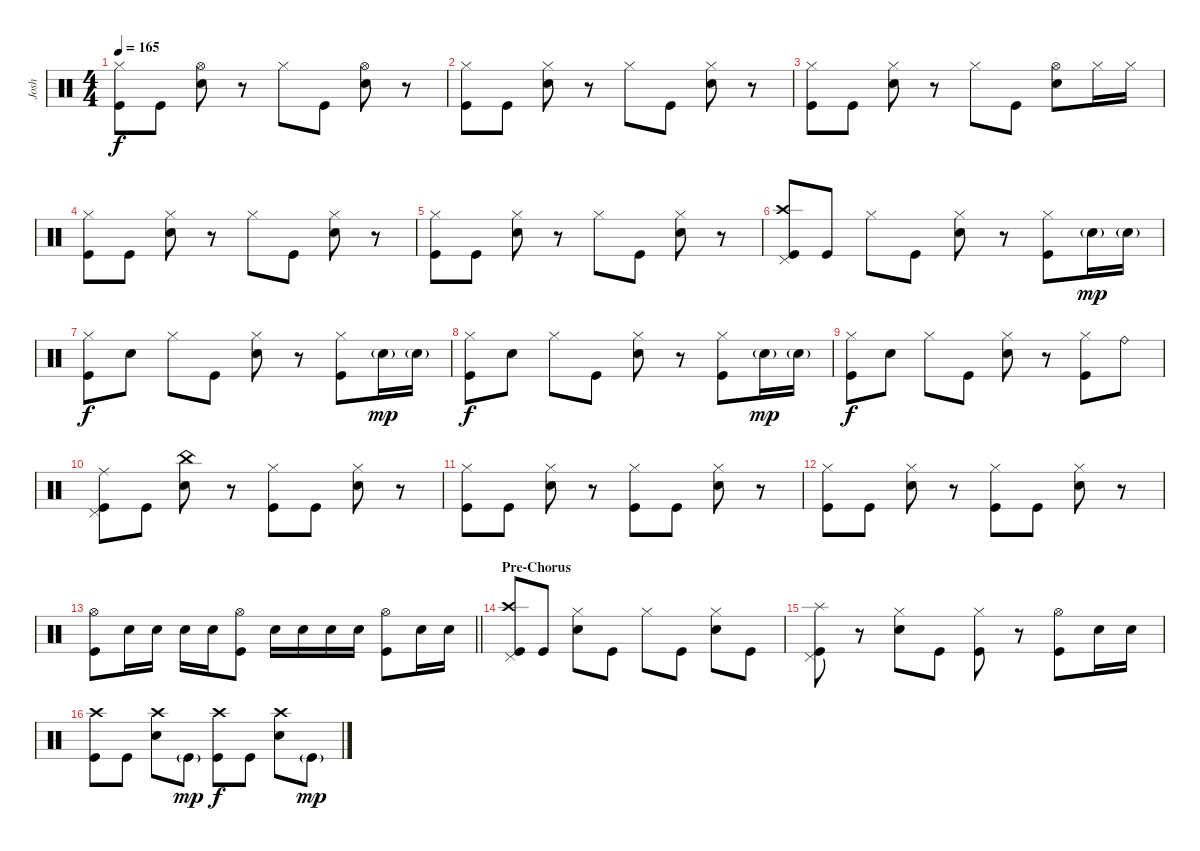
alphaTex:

\track ("Josh" "Josh") {instrument percussion}
\staff {score}
\articulation defaults
\ts (4 4)
\tempo 165
\clef neutral
\ks c
("Hi-Hat (closed)" "Kick (hit)").8{dy f} "Kick (hit)".8 ("Hi-Hat (open)" "Snare (hit) 2").8 r.8 "Hi-Hat (closed)".8 "Kick (hit)".8 ("Hi-Hat (open)" "Snare (hit) 2").8 r.8 |
("Hi-Hat (closed)" "Kick (hit)").8 "Kick (hit)".8 ("Hi-Hat (closed)" "Snare (hit) 2").8 r.8 "Hi-Hat (closed)".8 "Kick (hit)".8 ("Hi-Hat (closed)" "Snare (hit) 2").8 r.8 |
("Hi-Hat (closed)" "Kick (hit)").8 "Kick (hit)".8 ("Hi-Hat (closed)" "Snare (hit) 2").8 r.8 "Hi-Hat (closed)".8 "Kick (hit)".8 ("Hi-Hat (open)" "Snare (hit) 2").8 "Hi-Hat (closed)".16 "Hi-Hat (closed)".16 |
("Hi-Hat (closed)" "Kick (hit)").8 "Kick (hit)".8 ("Hi-Hat (closed)" "Snare (hit) 2").8 r.8 "Hi-Hat (closed)".8 "Kick (hit)".8 ("Hi-Hat (closed)" "Snare (hit) 2").8 r.8 |
("Hi-Hat (closed)" "Kick (hit)").8 "Kick (hit)".8 ("Hi-Hat (closed)" "Snare (hit) 2").8 r.8 "Hi-Hat (closed)".8 "Kick (hit)".8 ("Hi-Hat (closed)" "Snare (hit) 2").8 r.8 |
("Crash high (hit)" "Pedal Hi-Hat (hit)" "Kick (hit)").8 "Kick (hit)".8 "Hi-Hat (closed)".8 "Kick (hit)".8 ("Hi-Hat (closed)" "Snare (hit) 2").8 r.8 ("Hi-Hat (closed)" "Kick (hit)").8 "Snare (hit) 2"{g}.16{dy mp} "Snare (hit) 2"{g}.16 |
("Hi-Hat (closed)" "Kick (hit)").8{dy f} "Snare (hit) 2".8 "Hi-Hat (closed)".8 "Kick (hit)".8 ("Hi-Hat (closed)" "Snare (hit) 2").8 r.8 ("Hi-Hat (closed)" "Kick (hit)").8 "Snare (hit) 2"{g}.16{dy mp} "Snare (hit) 2"{g}.16 |
("Hi-Hat (closed)" "Kick (hit)").8{dy f} "Snare (hit) 2".8 "Hi-Hat (closed)".8 "Kick (hit)".8 ("Hi-Hat (closed)" "Snare (hit) 2").8 r.8 ("Hi-Hat (closed)" "Kick (hit)").8 "Snare (hit) 2"{g}.16{dy mp} "Snare (hit) 2"{g}.16 |
("Hi-Hat (closed)" "Kick (hit)").8{dy f} "Snare (hit) 2".8 "Hi-Hat (closed)".8 "Kick (hit)".8 ("Hi-Hat (closed)" "Snare (hit) 2").8 r.8 ("Hi-Hat (closed)" "Kick (hit)").8 "Ride (bell)".8 |
("Ride (middle)" "Pedal Hi-Hat (hit)" "Kick (hit)").8 "Kick (hit)".8 ("China (hit)" "Snare (hit) 2").8 r.8 ("Hi-Hat (closed)" "Kick (hit)").8 "Kick (hit)".8 ("Hi-Hat (closed)" "Snare (hit) 2").8 r.8 |
("Hi-Hat (closed)" "Kick (hit)").8 "Kick (hit)".8 ("Hi-Hat (closed)" "Snare (hit) 2").8 r.8 ("Hi-Hat (closed)" "Kick (hit)").8 "Kick (hit)".8 ("Hi-Hat (closed)" "Snare (hit) 2").8 r.8 |
("Hi-Hat (closed)" "Kick (hit)").8 "Kick (hit)".8 ("Hi-Hat (closed)" "Snare (hit) 2").8 r.8 ("Hi-Hat (closed)" "Kick (hit)").8 "Kick (hit)".8 ("Hi-Hat (closed)" "Snare (hit) 2").8 r.8 |
\barLineRight lightlight
("Hi-Hat (open)" "Kick (hit)").8 "Snare (hit) 2".16 "Snare (hit) 2".16 "Snare (hit) 2".16 "Snare (hit) 2".16 ("Hi-Hat (open)" "Kick (hit)").8 "Snare (hit) 2".16 "Snare (hit) 2".16 "Snare (hit) 2".16 "Snare (hit) 2".16 ("Hi-Hat (open)" "Kick (hit)").8 "Snare (hit) 2".16 "Snare (hit) 2".16 |
\section ("" "Pre-Chorus")
("Crash high (hit)" "Pedal Hi-Hat (hit)" "Kick (hit)").8 "Kick (hit)".8 ("Hi-Hat (closed)" "Snare (hit) 2").8 "Kick (hit)".8 "Hi-Hat (closed)".8 "Kick (hit)".8 ("Hi-Hat (closed)" "Snare (hit) 2").8 "Kick (hit)".8 |
("Splash (hit)" "Pedal Hi-Hat (hit)" "Kick (hit)").8 r.8 ("Hi-Hat (closed)" "Snare (hit) 2").8 "Kick (hit)".8 ("Hi-Hat (closed)" "Kick (hit)").8 r.8 ("Hi-Hat (open)" "Kick (hit)").8 "Snare (hit) 2".16 "Snare (hit) 2".16 |
("Crash high (hit)" "Kick (hit)").8 "Kick (hit)".8 ("Crash high (hit)" "Snare (hit) 2").8 "Kick (hit)"{g}.8{dy mp} ("Crash high (hit)" "Kick (hit)").8{dy f} "Kick (hit)".8 ("Crash high (hit)" "Snare (hit) 2").8 "Kick (hit)"{g}.8{dy mp}
